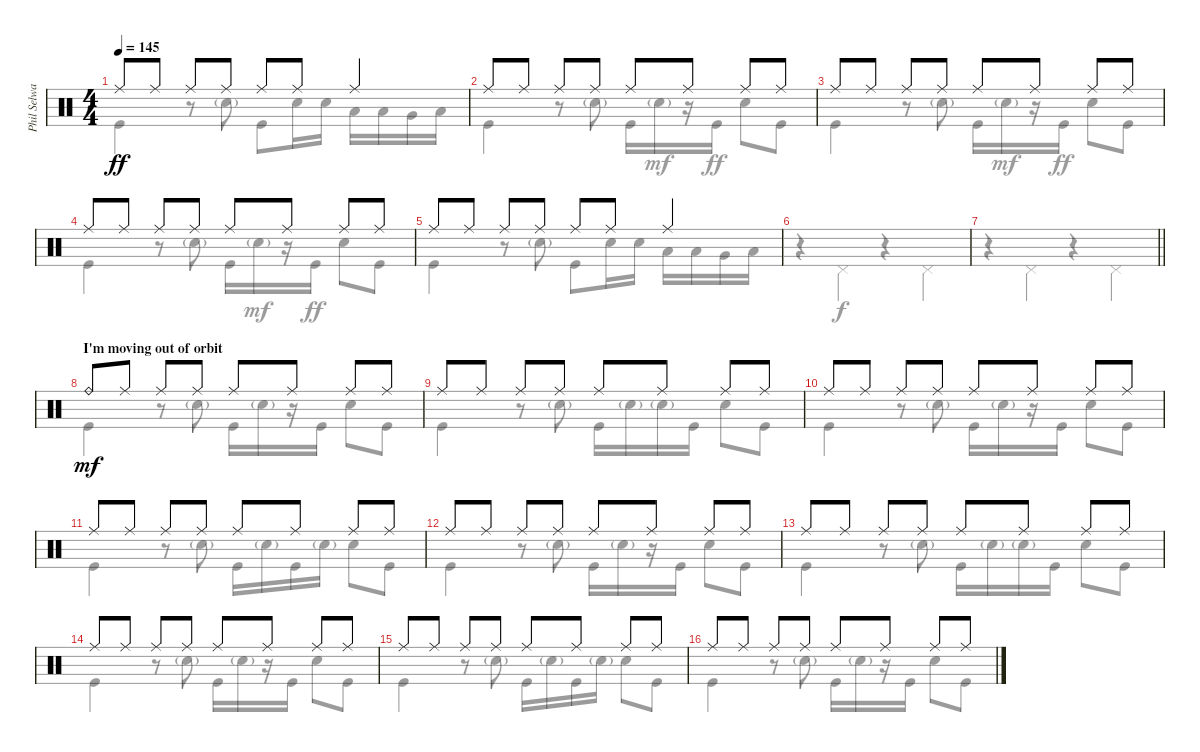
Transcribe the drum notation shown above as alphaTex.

\track ("Phil Selway" "Phil Selwa") {instrument percussion}
\staff {score}
\articulation defaults
\voice
\ts (4 4)
\tempo 145
\clef neutral
\ks c "Ride (middle)".8{dy ff} "Ride (middle)".8 "Ride (middle)".8 "Ride (middle)".8 "Ride (middle)".8 "Ride (middle)".8 "Ride (middle)".4
|
"Ride (middle)".8 "Ride (middle)".8 "Ride (middle)".8 "Ride (middle)".8 "Ride (middle)".8 "Ride (middle)".8 "Ride (middle)".8 "Ride (middle)".8 |
"Ride (middle)".8 "Ride (middle)".8 "Ride (middle)".8 "Ride (middle)".8 "Ride (middle)".8 "Ride (middle)".8 "Ride (middle)".8 "Ride (middle)".8 |
"Ride (middle)".8 "Ride (middle)".8 "Ride (middle)".8 "Ride (middle)".8 "Ride (middle)".8 "Ride (middle)".8 "Ride (middle)".8 "Ride (middle)".8 |
"Ride (middle)".8 "Ride (middle)".8 "Ride (middle)".8 "Ride (middle)".8 "Ride (middle)".8 "Ride (middle)".8 "Ride (middle)".4 |
|
\barLineRight lightlight
|
\section ("" "I'm moving out of orbit")
"Ride (bell)".8{dy mf} "Ride (middle)".8 "Ride (middle)".8 "Ride (middle)".8 "Ride (middle)".8 "Ride (middle)".8 "Ride (middle)".8 "Ride (middle)".8 |
"Ride (middle)".8 "Ride (middle)".8 "Ride (middle)".8 "Ride (middle)".8 "Ride (middle)".8 "Ride (middle)".8 "Ride (middle)".8 "Ride (middle)".8 |
"Ride (middle)".8 "Ride (middle)".8 "Ride (middle)".8 "Ride (middle)".8 "Ride (middle)".8 "Ride (middle)".8 "Ride (middle)".8 "Ride (middle)".8 |
"Ride (middle)".8 "Ride (middle)".8 "Ride (middle)".8 "Ride (middle)".8 "Ride (middle)".8 "Ride (middle)".8 "Ride (middle)".8 "Ride (middle)".8 |
"Ride (middle)".8 "Ride (middle)".8 "Ride (middle)".8 "Ride (middle)".8 "Ride (middle)".8 "Ride (middle)".8 "Ride (middle)".8 "Ride (middle)".8 |
"Ride (middle)".8 "Ride (middle)".8 "Ride (middle)".8 "Ride (middle)".8 "Ride (middle)".8 "Ride (middle)".8 "Ride (middle)".8 "Ride (middle)".8 |
"Ride (middle)".8 "Ride (middle)".8 "Ride (middle)".8 "Ride (middle)".8 "Ride (middle)".8 "Ride (middle)".8 "Ride (middle)".8 "Ride (middle)".8 |
"Ride (middle)".8 "Ride (middle)".8 "Ride (middle)".8 "Ride (middle)".8 "Ride (middle)".8 "Ride (middle)".8 "Ride (middle)".8 "Ride (middle)".8 |
"Ride (middle)".8 "Ride (middle)".8 "Ride (middle)".8 "Ride (middle)".8 "Ride (middle)".8 "Ride (middle)".8 "Ride (middle)".8 "Ride (middle)".8
\voice
\clef neutral
\ottava regular
\simile none
\ks c "Kick (hit)".4{dy ff}
r.8 "Snare (hit) 2"{g}.8 "Kick (hit)".8 "Snare (hit) 2".16 "Snare (hit) 2".16 "Low Tom (hit)".16 "Low Tom (hit)".16 "Very Low Tom (hit)".16 "Low Floor Tom (hit)".16 |
"Kick (hit)".4 r.8 "Snare (hit) 2"{g}.8 "Kick (hit)".16 "Snare (hit) 2"{g}.16{dy mf} r.16 "Kick (hit)".16{dy ff} "Snare (hit) 2".8 "Kick (hit)".8 |
"Kick (hit)".4 r.8 "Snare (hit) 2"{g}.8 "Kick (hit)".16 "Snare (hit) 2"{g}.16{dy mf} r.16 "Kick (hit)".16{dy ff} "Snare (hit) 2".8 "Kick (hit)".8 |
"Kick (hit)".4 r.8 "Snare (hit) 2"{g}.8 "Kick (hit)".16 "Snare (hit) 2"{g}.16{dy mf} r.16 "Kick (hit)".16{dy ff} "Snare (hit) 2".8 "Kick (hit)".8 |
"Kick (hit)".4 r.8 "Snare (hit) 2"{g}.8 "Kick (hit)".8 "Snare (hit) 2".16 "Snare (hit) 2".16 "Low Tom (hit)".16 "Low Tom (hit)".16 "Very Low Tom (hit)".16 "Low Floor Tom (hit)".16 |
r.4 "Pedal Hi-Hat (hit)".4{dy f} r.4 "Pedal Hi-Hat (hit)".4 |
\barLineRight lightlight
r.4 "Pedal Hi-Hat (hit)".4 r.4 "Pedal Hi-Hat (hit)".4 |
"Kick (hit)".4{dy mf} r.8 "Snare (hit) 2"{g}.8 "Kick (hit)".16 "Snare (hit) 2"{g}.16 r.16 "Kick (hit)".16 "Snare (hit) 2".8 "Kick (hit)".8 |
"Kick (hit)".4 r.8 "Snare (hit) 2"{g}.8 "Kick (hit)".16 "Snare (hit) 2"{g}.16 "Snare (hit) 2"{g}.16 "Kick (hit)".16 "Snare (hit) 2".8 "Kick (hit)".8 |
"Kick (hit)".4 r.8 "Snare (hit) 2"{g}.8 "Kick (hit)".16 "Snare (hit) 2"{g}.16 r.16 "Kick (hit)".16 "Snare (hit) 2".8 "Kick (hit)".8 |
"Kick (hit)".4 r.8 "Snare (hit) 2"{g}.8 "Kick (hit)".16 "Snare (hit) 2"{g}.16 "Kick (hit)".16 "Snare (hit) 2"{g}.16 "Snare (hit) 2".8 "Kick (hit)".8 |
"Kick (hit)".4 r.8 "Snare (hit) 2"{g}.8 "Kick (hit)".16 "Snare (hit) 2"{g}.16 r.16 "Kick (hit)".16 "Snare (hit) 2".8 "Kick (hit)".8 |
"Kick (hit)".4 r.8 "Snare (hit) 2"{g}.8 "Kick (hit)".16 "Snare (hit) 2"{g}.16 "Snare (hit) 2"{g}.16 "Kick (hit)".16 "Snare (hit) 2".8 "Kick (hit)".8 |
"Kick (hit)".4 r.8 "Snare (hit) 2"{g}.8 "Kick (hit)".16 "Snare (hit) 2"{g}.16 r.16 "Kick (hit)".16 "Snare (hit) 2".8 "Kick (hit)".8 |
"Kick (hit)".4 r.8 "Snare (hit) 2"{g}.8 "Kick (hit)".16 "Snare (hit) 2"{g}.16 "Kick (hit)".16 "Snare (hit) 2"{g}.16 "Snare (hit) 2".8 "Kick (hit)".8 |
"Kick (hit)".4 r.8 "Snare (hit) 2"{g}.8 "Kick (hit)".16 "Snare (hit) 2"{g}.16 r.16 "Kick (hit)".16 "Snare (hit) 2".8 "Kick (hit)".8
